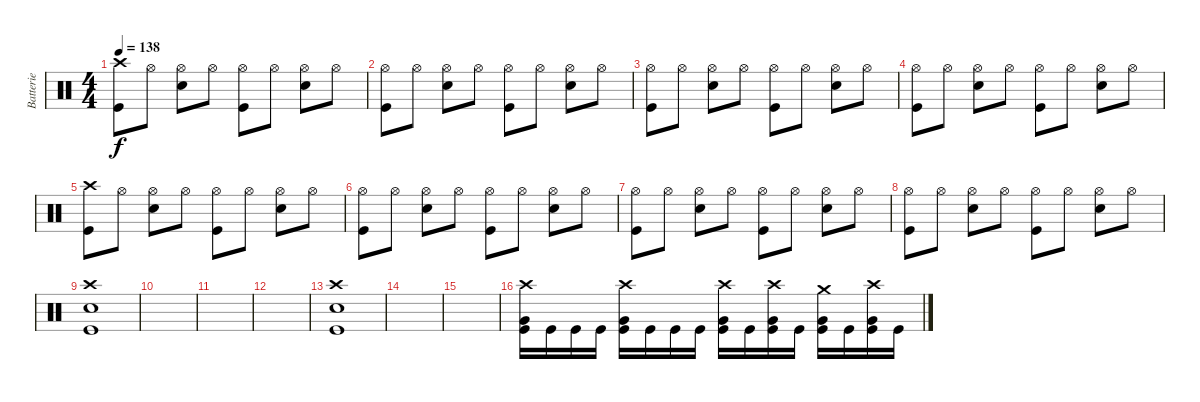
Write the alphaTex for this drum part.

\track ("Batterie" "Batterie") {instrument percussion}
\staff {score}
\articulation defaults
\ts (4 4)
\tempo 138
\clef neutral
\ks c
("Crash high (hit)" "Kick (hit)").8{dy f} "Hi-Hat (open)".8 ("Hi-Hat (open)" "Snare (hit) 2").8 "Hi-Hat (open)".8 ("Hi-Hat (open)" "Kick (hit)").8 "Hi-Hat (open)".8 ("Hi-Hat (open)" "Snare (hit) 2").8 "Hi-Hat (open)".8 |
("Hi-Hat (open)" "Kick (hit)").8 "Hi-Hat (open)".8 ("Hi-Hat (open)" "Snare (hit) 2").8 "Hi-Hat (open)".8 ("Hi-Hat (open)" "Kick (hit)").8 "Hi-Hat (open)".8 ("Hi-Hat (open)" "Snare (hit) 2").8 "Hi-Hat (open)".8 |
("Hi-Hat (open)" "Kick (hit)").8 "Hi-Hat (open)".8 ("Hi-Hat (open)" "Snare (hit) 2").8 "Hi-Hat (open)".8 ("Hi-Hat (open)" "Kick (hit)").8 "Hi-Hat (open)".8 ("Hi-Hat (open)" "Snare (hit) 2").8 "Hi-Hat (open)".8 |
("Hi-Hat (open)" "Kick (hit)").8 "Hi-Hat (open)".8 ("Hi-Hat (open)" "Snare (hit) 2").8 "Hi-Hat (open)".8 ("Hi-Hat (open)" "Kick (hit)").8 "Hi-Hat (open)".8 ("Hi-Hat (open)" "Snare (hit) 2").8 "Hi-Hat (open)".8 |
("Crash high (hit)" "Kick (hit)").8 "Hi-Hat (open)".8 ("Hi-Hat (open)" "Snare (hit) 2").8 "Hi-Hat (open)".8 ("Hi-Hat (open)" "Kick (hit)").8 "Hi-Hat (open)".8 ("Hi-Hat (open)" "Snare (hit) 2").8 "Hi-Hat (open)".8 |
("Hi-Hat (open)" "Kick (hit)").8 "Hi-Hat (open)".8 ("Hi-Hat (open)" "Snare (hit) 2").8 "Hi-Hat (open)".8 ("Hi-Hat (open)" "Kick (hit)").8 "Hi-Hat (open)".8 ("Hi-Hat (open)" "Snare (hit) 2").8 "Hi-Hat (open)".8 |
("Hi-Hat (open)" "Kick (hit)").8 "Hi-Hat (open)".8 ("Hi-Hat (open)" "Snare (hit) 2").8 "Hi-Hat (open)".8 ("Hi-Hat (open)" "Kick (hit)").8 "Hi-Hat (open)".8 ("Hi-Hat (open)" "Snare (hit) 2").8 "Hi-Hat (open)".8 |
("Hi-Hat (open)" "Kick (hit)").8 "Hi-Hat (open)".8 ("Hi-Hat (open)" "Snare (hit) 2").8 "Hi-Hat (open)".8 ("Hi-Hat (open)" "Kick (hit)").8 "Hi-Hat (open)".8 ("Hi-Hat (open)" "Snare (hit) 2").8 "Hi-Hat (open)".8 |
("Crash high (hit)" "Snare (hit) 2" "Kick (hit)").1 |
|
|
|
("Crash high (hit)" "Snare (hit) 2" "Kick (hit)").1 |
|
|
("Crash high (hit)" "Very Low Tom (hit)" "Kick (hit)").16 "Kick (hit)".16 "Kick (hit)".16 "Kick (hit)".16 ("Crash high (hit)" "Very Low Tom (hit)" "Kick (hit)").16 "Kick (hit)".16 "Kick (hit)".16 "Kick (hit)".16 ("Crash high (hit)" "Very Low Tom (hit)" "Kick (hit)").16 "Kick (hit)".16 ("Crash high (hit)" "Very Low Tom (hit)" "Kick (hit)").16 "Kick (hit)".16 ("Crash medium (hit)" "Very Low Tom (hit)" "Kick (hit)").16 "Kick (hit)".16 ("Crash high (hit)" "Very Low Tom (hit)" "Kick (hit)").16 "Kick (hit)".16
